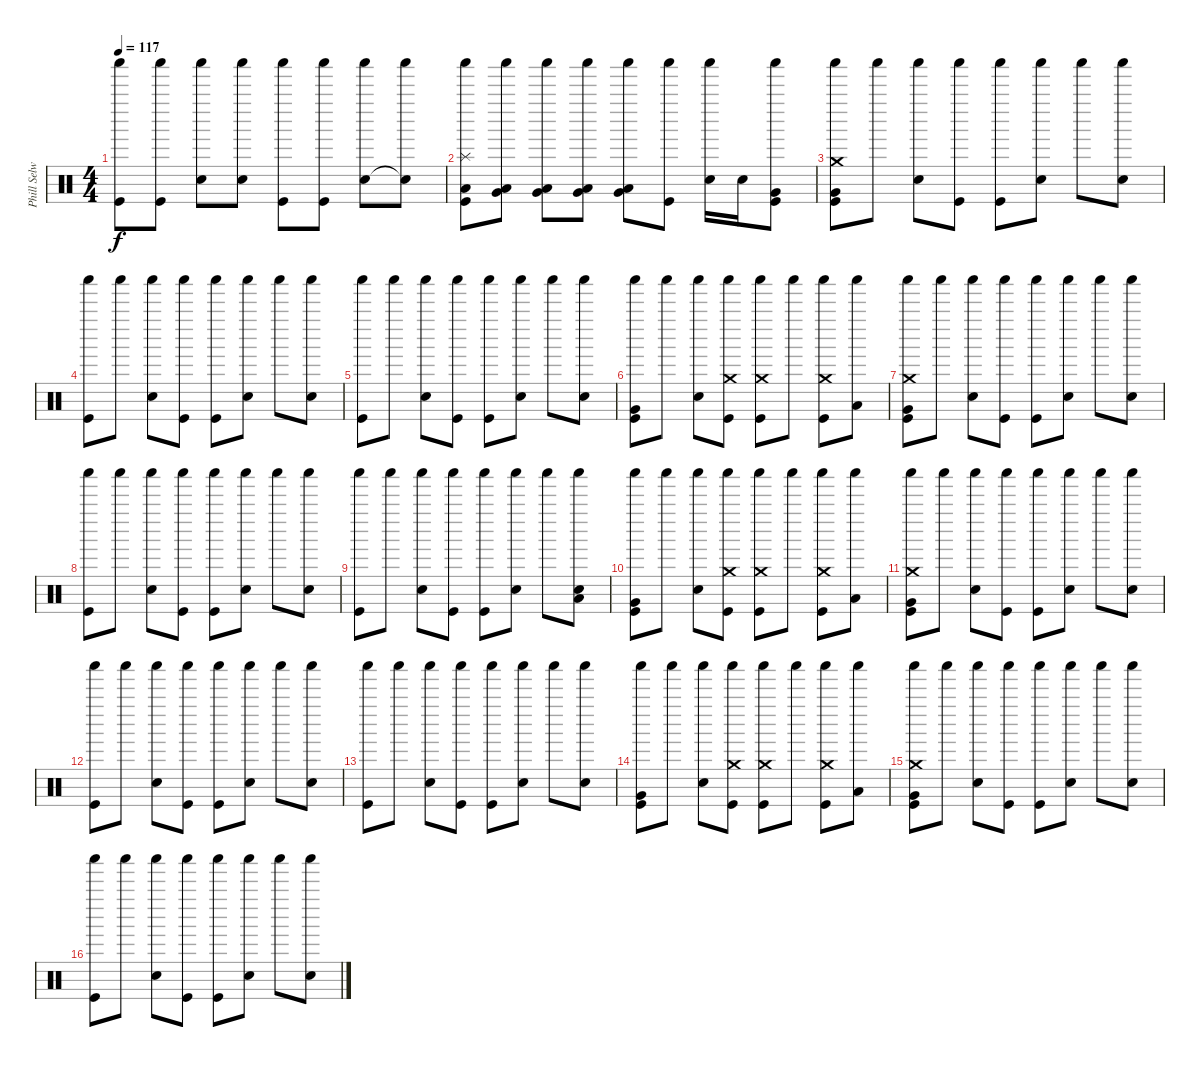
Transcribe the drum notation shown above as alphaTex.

\track ("Phill Selway" "Phill Selw") {instrument percussion}
\staff {score}
\articulation defaults
\ts (4 4)
\tempo 117
\clef neutral
\ks c
("Shaker (hit)" "Kick (hit)").8{dy f} ("Shaker (hit)" "Kick (hit)").8 ("Shaker (hit)" "Snare (hit) 2").8 ("Shaker (hit)" "Snare (hit) 2").8 ("Shaker (hit)" "Kick (hit)").8 ("Shaker (hit)" "Kick (hit)").8 ("Shaker (hit)" "Snare (hit) 2").8 ("Shaker (hit)" "Snare (hit)"{t}).8 |
("Shaker (hit)" "Splash (hit)" "Kick (hit)" "Low Tom (hit)").8 ("Shaker (hit)" "Very Low Tom (hit)" "Low Tom (hit)").8 ("Shaker (hit)" "Very Low Tom (hit)" "Low Tom (hit)").8 ("Shaker (hit)" "Very Low Tom (hit)" "Low Tom (hit)").8 ("Shaker (hit)" "Very Low Tom (hit)" "Low Tom (hit)").8 ("Shaker (hit)" "Kick (hit)").8 ("Shaker (hit)" "Snare (hit) 2").16 "Snare (hit) 2".16 ("Shaker (hit)" "Kick (hit)" "Very Low Tom (hit)").8 |
("Shaker (hit)" "Crash medium (hit)" "Kick (hit)" "Very Low Tom (hit)").8 "Shaker (hit)".8 ("Shaker (hit)" "Snare (hit) 2").8 ("Shaker (hit)" "Kick (hit)").8 ("Shaker (hit)" "Kick (hit)").8 ("Shaker (hit)" "Snare (hit) 2").8 "Shaker (hit)".8 ("Shaker (hit)" "Snare (hit) 2").8 |
("Shaker (hit)" "Kick (hit)").8 "Shaker (hit)".8 ("Shaker (hit)" "Snare (hit) 2").8 ("Shaker (hit)" "Kick (hit)").8 ("Shaker (hit)" "Kick (hit)").8 ("Shaker (hit)" "Snare (hit) 2").8 "Shaker (hit)".8 ("Shaker (hit)" "Snare (hit) 2").8 |
("Shaker (hit)" "Kick (hit)").8 "Shaker (hit)".8 ("Shaker (hit)" "Snare (hit) 2").8 ("Shaker (hit)" "Kick (hit)").8 ("Shaker (hit)" "Kick (hit)").8 ("Shaker (hit)" "Snare (hit) 2").8 "Shaker (hit)".8 ("Shaker (hit)" "Snare (hit) 2").8 |
("Shaker (hit)" "Kick (hit)" "Very Low Tom (hit)").8 "Shaker (hit)".8 ("Shaker (hit)" "Snare (hit) 2").8 ("Shaker (hit)" "Crash medium (hit)" "Kick (hit)").8 ("Shaker (hit)" "Crash medium (hit)" "Kick (hit)").8 "Shaker (hit)".8 ("Shaker (hit)" "Crash medium (hit)" "Kick (hit)").8 ("Shaker (hit)" "Low Tom (hit)").8 |
("Shaker (hit)" "Crash medium (hit)" "Kick (hit)" "Very Low Tom (hit)").8 "Shaker (hit)".8 ("Shaker (hit)" "Snare (hit) 2").8 ("Shaker (hit)" "Kick (hit)").8 ("Shaker (hit)" "Kick (hit)").8 ("Shaker (hit)" "Snare (hit) 2").8 "Shaker (hit)".8 ("Shaker (hit)" "Snare (hit) 2").8 |
("Shaker (hit)" "Kick (hit)").8 "Shaker (hit)".8 ("Shaker (hit)" "Snare (hit) 2").8 ("Shaker (hit)" "Kick (hit)").8 ("Shaker (hit)" "Kick (hit)").8 ("Shaker (hit)" "Snare (hit) 2").8 "Shaker (hit)".8 ("Shaker (hit)" "Snare (hit) 2").8 |
("Shaker (hit)" "Kick (hit)").8 "Shaker (hit)".8 ("Shaker (hit)" "Snare (hit) 2").8 ("Shaker (hit)" "Kick (hit)").8 ("Shaker (hit)" "Kick (hit)").8 ("Shaker (hit)" "Snare (hit) 2").8 "Shaker (hit)".8 ("Shaker (hit)" "Snare (hit) 2" "Low Tom (hit)").8 |
("Shaker (hit)" "Kick (hit)" "Very Low Tom (hit)").8 "Shaker (hit)".8 ("Shaker (hit)" "Snare (hit) 2").8 ("Shaker (hit)" "Crash medium (hit)" "Kick (hit)").8 ("Shaker (hit)" "Crash medium (hit)" "Kick (hit)").8 "Shaker (hit)".8 ("Shaker (hit)" "Crash medium (hit)" "Kick (hit)").8 ("Shaker (hit)" "Low Tom (hit)").8 |
("Shaker (hit)" "Crash medium (hit)" "Kick (hit)" "Very Low Tom (hit)").8 "Shaker (hit)".8 ("Shaker (hit)" "Snare (hit) 2").8 ("Shaker (hit)" "Kick (hit)").8 ("Shaker (hit)" "Kick (hit)").8 ("Shaker (hit)" "Snare (hit) 2").8 "Shaker (hit)".8 ("Shaker (hit)" "Snare (hit) 2").8 |
("Shaker (hit)" "Kick (hit)").8 "Shaker (hit)".8 ("Shaker (hit)" "Snare (hit) 2").8 ("Shaker (hit)" "Kick (hit)").8 ("Shaker (hit)" "Kick (hit)").8 ("Shaker (hit)" "Snare (hit) 2").8 "Shaker (hit)".8 ("Shaker (hit)" "Snare (hit) 2").8 |
("Shaker (hit)" "Kick (hit)").8 "Shaker (hit)".8 ("Shaker (hit)" "Snare (hit) 2").8 ("Shaker (hit)" "Kick (hit)").8 ("Shaker (hit)" "Kick (hit)").8 ("Shaker (hit)" "Snare (hit) 2").8 "Shaker (hit)".8 ("Shaker (hit)" "Snare (hit) 2").8 |
("Shaker (hit)" "Kick (hit)" "Very Low Tom (hit)").8 "Shaker (hit)".8 ("Shaker (hit)" "Snare (hit) 2").8 ("Shaker (hit)" "Crash medium (hit)" "Kick (hit)").8 ("Shaker (hit)" "Crash medium (hit)" "Kick (hit)").8 "Shaker (hit)".8 ("Shaker (hit)" "Crash medium (hit)" "Kick (hit)").8 ("Shaker (hit)" "Low Tom (hit)").8 |
("Shaker (hit)" "Crash medium (hit)" "Kick (hit)" "Very Low Tom (hit)").8 "Shaker (hit)".8 ("Shaker (hit)" "Snare (hit) 2").8 ("Shaker (hit)" "Kick (hit)").8 ("Shaker (hit)" "Kick (hit)").8 ("Shaker (hit)" "Snare (hit) 2").8 "Shaker (hit)".8 ("Shaker (hit)" "Snare (hit) 2").8 |
("Shaker (hit)" "Kick (hit)").8 "Shaker (hit)".8 ("Shaker (hit)" "Snare (hit) 2").8 ("Shaker (hit)" "Kick (hit)").8 ("Shaker (hit)" "Kick (hit)").8 ("Shaker (hit)" "Snare (hit) 2").8 "Shaker (hit)".8 ("Shaker (hit)" "Snare (hit) 2").8
